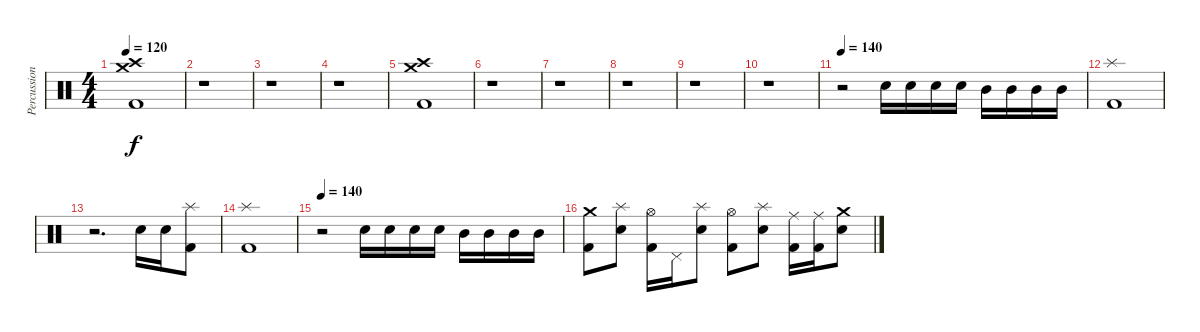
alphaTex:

\track ("Percussion" "Percussion") {instrument percussion}
\staff {score}
\articulation defaults
\ts (4 4)
\tempo 120
\clef neutral
\ks c
("Crash high (hit)" "Crash medium (hit)" "Kick (hit) 2").1{dy f} |
r.1 |
r.1 |
r.1 |
("Crash high (hit)" "Crash medium (hit)" "Kick (hit) 2").1 |
r.1 |
r.1 |
r.1 |
r.1 |
r.1 |
\tempo 140
r.2 "Snare (hit) 2".16 "Snare (hit) 2".16 "Snare (hit) 2".16 "Snare (hit) 2".16 "Mid Tom (hit)".16 "Mid Tom (hit)".16 "Mid Tom (hit)".16 "Mid Tom (hit)".16 |
("Splash (hit)" "Kick (hit) 2").1 |
r.2{d} "Snare (hit) 2".16 "Snare (hit) 2".16 ("Splash (hit)" "Kick (hit) 2").8 |
("Splash (hit)" "Kick (hit) 2").1 |
\tempo 140
r.2 "Snare (hit) 2".16 "Snare (hit) 2".16 "Snare (hit) 2".16 "Snare (hit) 2".16 "Mid Tom (hit)".16 "Mid Tom (hit)".16 "Mid Tom (hit)".16 "Mid Tom (hit)".16 |
("Crash medium (hit)" "Kick (hit) 2").8 ("Splash (hit)" "Snare (hit) 2").8 ("Hi-Hat (open)" "Kick (hit) 2").16 "Pedal Hi-Hat (hit)".16 ("Splash (hit)" "Snare (hit) 2").8 ("Hi-Hat (open)" "Kick (hit) 2").8 ("Splash (hit)" "Snare (hit) 2").8 ("Ride (middle)" "Kick (hit) 2").16 ("Ride (middle)" "Kick (hit) 2").16 ("Crash medium (hit)" "Snare (hit) 2").8
